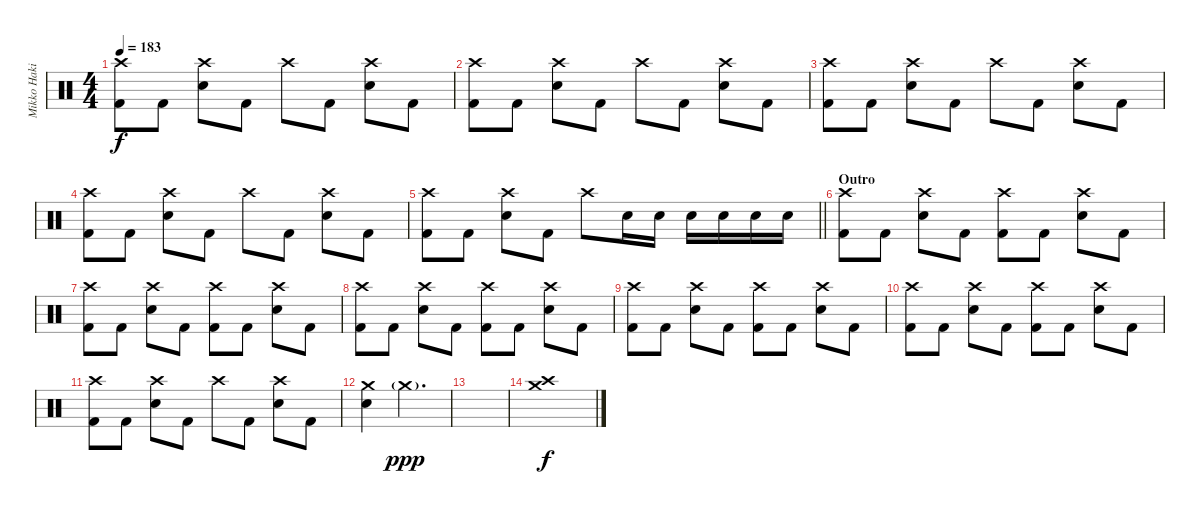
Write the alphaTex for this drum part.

\track ("Mikko Hakila - Drums" "Mikko Haki") {instrument percussion}
\staff {score}
\articulation defaults
\ts (4 4)
\tempo 183
\clef neutral
\ks c
("Crash high (hit)" "Kick (hit) 2").8{dy f} "Kick (hit) 2".8 ("Crash high (hit)" "Electric Snare (hit)").8 "Kick (hit) 2".8 "Crash high (hit)".8 "Kick (hit) 2".8 ("Crash high (hit)" "Electric Snare (hit)").8 "Kick (hit) 2".8 |
("Crash high (hit)" "Kick (hit) 2").8 "Kick (hit) 2".8 ("Crash high (hit)" "Electric Snare (hit)").8 "Kick (hit) 2".8 "Crash high (hit)".8 "Kick (hit) 2".8 ("Crash high (hit)" "Electric Snare (hit)").8 "Kick (hit) 2".8 |
("Crash high (hit)" "Kick (hit) 2").8 "Kick (hit) 2".8 ("Crash high (hit)" "Electric Snare (hit)").8 "Kick (hit) 2".8 "Crash high (hit)".8 "Kick (hit) 2".8 ("Crash high (hit)" "Electric Snare (hit)").8 "Kick (hit) 2".8 |
("Crash high (hit)" "Kick (hit) 2").8 "Kick (hit) 2".8 ("Crash high (hit)" "Electric Snare (hit)").8 "Kick (hit) 2".8 "Crash high (hit)".8 "Kick (hit) 2".8 ("Crash high (hit)" "Electric Snare (hit)").8 "Kick (hit) 2".8 |
\barLineRight lightlight
("Crash high (hit)" "Kick (hit) 2").8 "Kick (hit) 2".8 ("Crash high (hit)" "Electric Snare (hit)").8 "Kick (hit) 2".8 "Crash high (hit)".8 "Electric Snare (hit)".16 "Electric Snare (hit)".16 "Electric Snare (hit)".16 "Electric Snare (hit)".16 "Electric Snare (hit)".16 "Electric Snare (hit)".16 |
\section ("" "Outro")
("Crash high (hit)" "Kick (hit) 2").8 "Kick (hit) 2".8 ("Crash high (hit)" "Electric Snare (hit)").8 "Kick (hit) 2".8 ("Crash high (hit)" "Kick (hit) 2").8 "Kick (hit) 2".8 ("Crash high (hit)" "Electric Snare (hit)").8 "Kick (hit) 2".8 |
("Crash high (hit)" "Kick (hit) 2").8 "Kick (hit) 2".8 ("Crash high (hit)" "Electric Snare (hit)").8 "Kick (hit) 2".8 ("Crash high (hit)" "Kick (hit) 2").8 "Kick (hit) 2".8 ("Crash high (hit)" "Electric Snare (hit)").8 "Kick (hit) 2".8 |
("Crash high (hit)" "Kick (hit) 2").8 "Kick (hit) 2".8 ("Crash high (hit)" "Electric Snare (hit)").8 "Kick (hit) 2".8 ("Crash high (hit)" "Kick (hit) 2").8 "Kick (hit) 2".8 ("Crash high (hit)" "Electric Snare (hit)").8 "Kick (hit) 2".8 |
("Crash high (hit)" "Kick (hit) 2").8 "Kick (hit) 2".8 ("Crash high (hit)" "Electric Snare (hit)").8 "Kick (hit) 2".8 ("Crash high (hit)" "Kick (hit) 2").8 "Kick (hit) 2".8 ("Crash high (hit)" "Electric Snare (hit)").8 "Kick (hit) 2".8 |
("Crash high (hit)" "Kick (hit) 2").8 "Kick (hit) 2".8 ("Crash high (hit)" "Electric Snare (hit)").8 "Kick (hit) 2".8 ("Crash high (hit)" "Kick (hit) 2").8 "Kick (hit) 2".8 ("Crash high (hit)" "Electric Snare (hit)").8 "Kick (hit) 2".8 |
("Crash high (hit)" "Kick (hit) 2").8 "Kick (hit) 2".8 ("Crash high (hit)" "Electric Snare (hit)").8 "Kick (hit) 2".8 "Crash high (hit)".8 "Kick (hit) 2".8 ("Crash high (hit)" "Electric Snare (hit)").8 "Kick (hit) 2".8 |
("Crash medium (hit)" "Electric Snare (hit)").4 "Crash medium (hit)"{g}.2{d dy ppp} |
|
("Crash medium (hit)" "Crash high (hit)").1{dy f}
